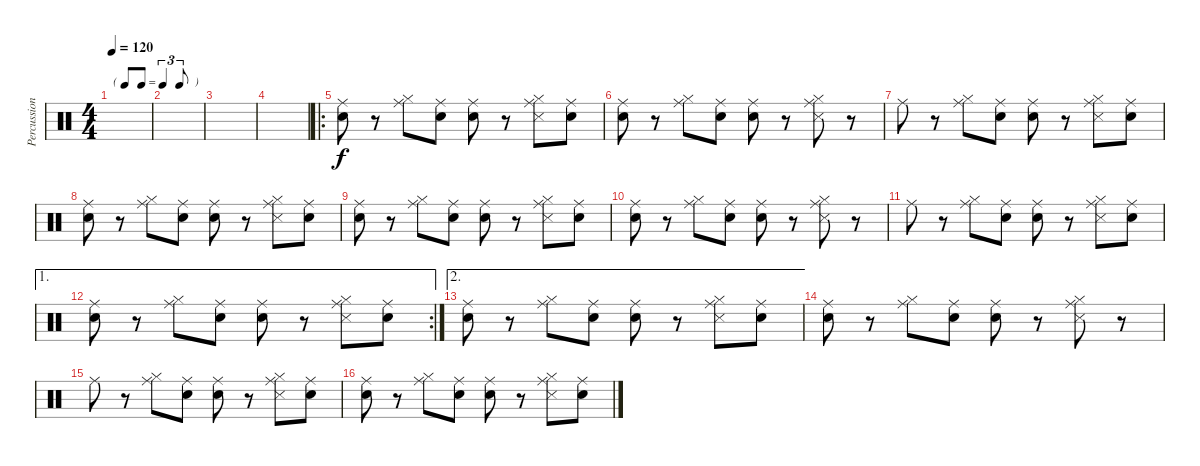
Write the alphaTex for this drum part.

\track ("Percussions" "Percussion") {instrument percussion}
\staff {score}
\articulation defaults
\ts (4 4)
\tf triplet8th
\tempo 120
\clef neutral
\ks c
|
|
|
|
\ro
("Snare (hit)" "Ride (middle)").8 r.8 ("Hi-Hat (closed)" "Ride (middle)").8 ("Snare (hit)" "Ride (middle)").8 ("Snare (hit)" "Ride (middle)").8 r.8 ("Hi-Hat (closed)" "Snare (side stick) 3" "Ride (middle)").8 ("Snare (hit)" "Ride (middle)").8 |
("Snare (hit)" "Ride (middle)").8 r.8 ("Hi-Hat (closed)" "Ride (middle)").8 ("Snare (hit)" "Ride (middle)").8 ("Snare (hit)" "Ride (middle)").8 r.8 ("Hi-Hat (closed)" "Snare (side stick) 3" "Ride (middle)").8 r.8 |
"Ride (middle)".8 r.8 ("Hi-Hat (closed)" "Ride (middle)").8 ("Snare (hit)" "Ride (middle)").8 ("Snare (hit)" "Ride (middle)").8 r.8 ("Hi-Hat (closed)" "Snare (side stick) 3" "Ride (middle)").8 ("Snare (hit)" "Ride (middle)").8 |
("Snare (hit)" "Ride (middle)").8 r.8 ("Hi-Hat (closed)" "Ride (middle)").8 ("Snare (hit)" "Ride (middle)").8 ("Snare (hit)" "Ride (middle)").8 r.8 ("Hi-Hat (closed)" "Snare (side stick) 3" "Ride (middle)").8 ("Snare (hit)" "Ride (middle)").8 |
("Snare (hit)" "Ride (middle)").8 r.8 ("Hi-Hat (closed)" "Ride (middle)").8 ("Snare (hit)" "Ride (middle)").8 ("Snare (hit)" "Ride (middle)").8 r.8 ("Hi-Hat (closed)" "Snare (side stick) 3" "Ride (middle)").8 ("Snare (hit)" "Ride (middle)").8 |
("Snare (hit)" "Ride (middle)").8 r.8 ("Hi-Hat (closed)" "Ride (middle)").8 ("Snare (hit)" "Ride (middle)").8 ("Snare (hit)" "Ride (middle)").8 r.8 ("Hi-Hat (closed)" "Snare (side stick) 3" "Ride (middle)").8 r.8 |
"Ride (middle)".8 r.8 ("Hi-Hat (closed)" "Ride (middle)").8 ("Snare (hit)" "Ride (middle)").8 ("Snare (hit)" "Ride (middle)").8 r.8 ("Hi-Hat (closed)" "Snare (side stick) 3" "Ride (middle)").8 ("Snare (hit)" "Ride (middle)").8 |
\ae 1
\rc 2
("Snare (hit)" "Ride (middle)").8 r.8 ("Hi-Hat (closed)" "Ride (middle)").8 ("Snare (hit)" "Ride (middle)").8 ("Snare (hit)" "Ride (middle)").8 r.8 ("Hi-Hat (closed)" "Snare (side stick) 3" "Ride (middle)").8 ("Snare (hit)" "Ride (middle)").8 |
\ae 2
("Snare (hit)" "Ride (middle)").8 r.8 ("Hi-Hat (closed)" "Ride (middle)").8 ("Snare (hit)" "Ride (middle)").8 ("Snare (hit)" "Ride (middle)").8 r.8 ("Hi-Hat (closed)" "Snare (side stick) 3" "Ride (middle)").8 ("Snare (hit)" "Ride (middle)").8 |
("Snare (hit)" "Ride (middle)").8 r.8 ("Hi-Hat (closed)" "Ride (middle)").8 ("Snare (hit)" "Ride (middle)").8 ("Snare (hit)" "Ride (middle)").8 r.8 ("Hi-Hat (closed)" "Snare (side stick) 3" "Ride (middle)").8 r.8 |
"Ride (middle)".8 r.8 ("Hi-Hat (closed)" "Ride (middle)").8 ("Snare (hit)" "Ride (middle)").8 ("Snare (hit)" "Ride (middle)").8 r.8 ("Hi-Hat (closed)" "Snare (side stick) 3" "Ride (middle)").8 ("Snare (hit)" "Ride (middle)").8 |
("Snare (hit)" "Ride (middle)").8 r.8 ("Hi-Hat (closed)" "Ride (middle)").8 ("Snare (hit)" "Ride (middle)").8 ("Snare (hit)" "Ride (middle)").8 r.8 ("Hi-Hat (closed)" "Snare (side stick) 3" "Ride (middle)").8 ("Snare (hit)" "Ride (middle)").8
